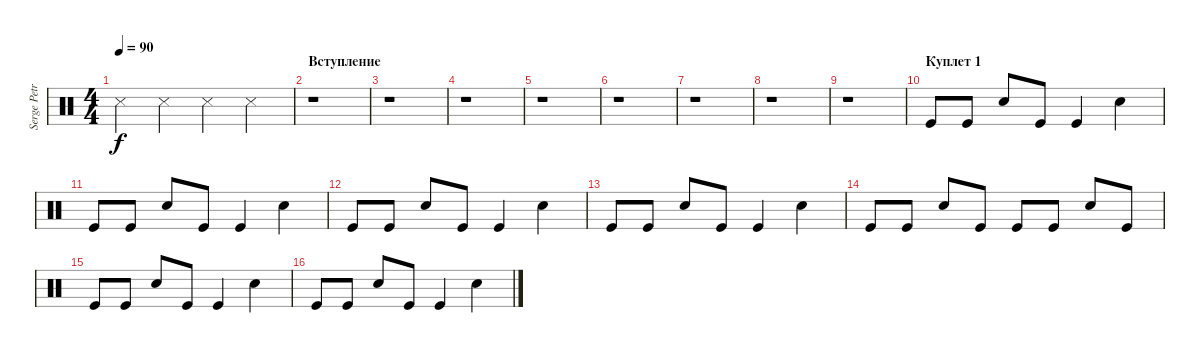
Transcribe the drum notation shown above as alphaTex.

\track ("Serge Petrone" "Serge Petr") {instrument percussion}
\staff {score}
\articulation defaults
\ts (4 4)
\tempo 90
\clef neutral
\ks c "Snare (side stick) 3".4{dy f} "Snare (side stick) 3".4 "Snare (side stick) 3".4 "Snare (side stick) 3".4
|
\section ("" "Вcтупление")
r.1 |
r.1 |
r.1 |
r.1 |
r.1 |
r.1 |
r.1 |
r.1 |
\section ("" "Куплет 1")
"Kick (hit)".8 "Kick (hit)".8 "Snare (hit) 2".8 "Kick (hit)".8 "Kick (hit)".4 "Snare (hit) 2".4 |
"Kick (hit)".8 "Kick (hit)".8 "Snare (hit) 2".8 "Kick (hit)".8 "Kick (hit)".4 "Snare (hit) 2".4 |
"Kick (hit)".8 "Kick (hit)".8 "Snare (hit) 2".8 "Kick (hit)".8 "Kick (hit)".4 "Snare (hit) 2".4 |
"Kick (hit)".8 "Kick (hit)".8 "Snare (hit) 2".8 "Kick (hit)".8 "Kick (hit)".4 "Snare (hit) 2".4 |
"Kick (hit)".8 "Kick (hit)".8 "Snare (hit) 2".8 "Kick (hit)".8 "Kick (hit)".8 "Kick (hit)".8 "Snare (hit) 2".8 "Kick (hit)".8 |
"Kick (hit)".8 "Kick (hit)".8 "Snare (hit) 2".8 "Kick (hit)".8 "Kick (hit)".4 "Snare (hit) 2".4 |
"Kick (hit)".8 "Kick (hit)".8 "Snare (hit) 2".8 "Kick (hit)".8 "Kick (hit)".4 "Snare (hit) 2".4
